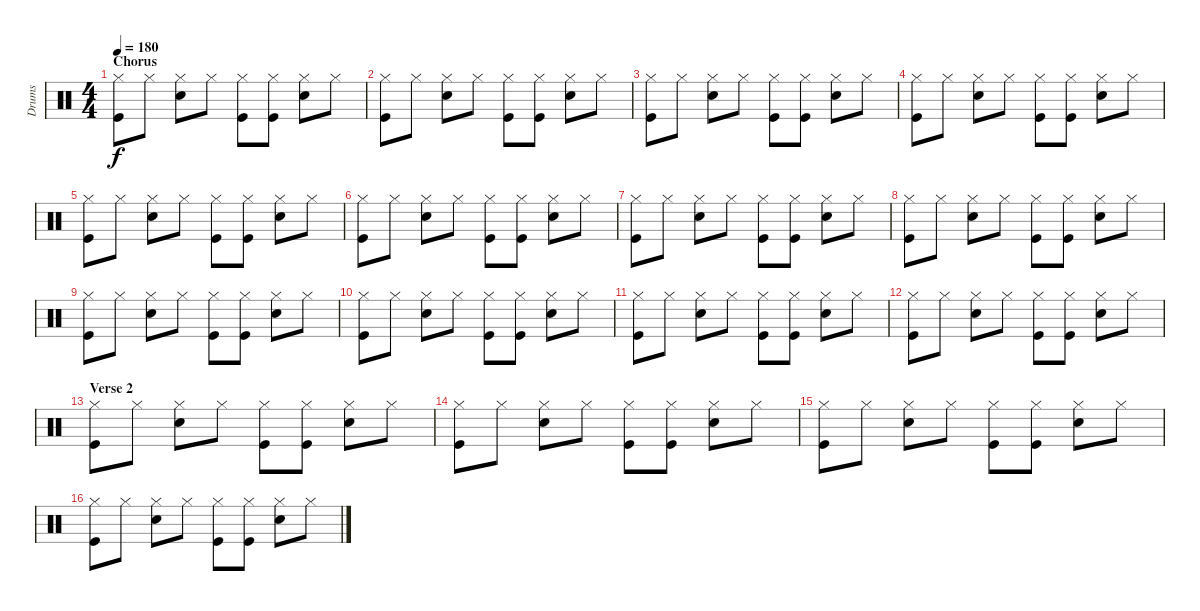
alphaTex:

\track ("Drums" "Drums") {instrument percussion}
\staff {score}
\articulation defaults
\ts (4 4)
\section ("" "Chorus")
\tempo 180
\clef neutral
\ks c
("Hi-Hat (closed)" "Kick (hit)").8{dy f} "Hi-Hat (closed)".8 ("Hi-Hat (closed)" "Electric Snare (hit)").8 "Hi-Hat (closed)".8 ("Kick (hit)" "Hi-Hat (closed)").8 ("Hi-Hat (closed)" "Kick (hit)").8 ("Hi-Hat (closed)" "Electric Snare (hit)").8 "Hi-Hat (closed)".8 |
("Hi-Hat (closed)" "Kick (hit)").8 "Hi-Hat (closed)".8 ("Hi-Hat (closed)" "Electric Snare (hit)").8 "Hi-Hat (closed)".8 ("Kick (hit)" "Hi-Hat (closed)").8 ("Hi-Hat (closed)" "Kick (hit)").8 ("Hi-Hat (closed)" "Electric Snare (hit)").8 "Hi-Hat (closed)".8 |
("Hi-Hat (closed)" "Kick (hit)").8 "Hi-Hat (closed)".8 ("Hi-Hat (closed)" "Electric Snare (hit)").8 "Hi-Hat (closed)".8 ("Kick (hit)" "Hi-Hat (closed)").8 ("Hi-Hat (closed)" "Kick (hit)").8 ("Hi-Hat (closed)" "Electric Snare (hit)").8 "Hi-Hat (closed)".8 |
("Hi-Hat (closed)" "Kick (hit)").8 "Hi-Hat (closed)".8 ("Hi-Hat (closed)" "Electric Snare (hit)").8 "Hi-Hat (closed)".8 ("Kick (hit)" "Hi-Hat (closed)").8 ("Hi-Hat (closed)" "Kick (hit)").8 ("Hi-Hat (closed)" "Electric Snare (hit)").8 "Hi-Hat (closed)".8 |
("Hi-Hat (closed)" "Kick (hit)").8 "Hi-Hat (closed)".8 ("Hi-Hat (closed)" "Electric Snare (hit)").8 "Hi-Hat (closed)".8 ("Kick (hit)" "Hi-Hat (closed)").8 ("Hi-Hat (closed)" "Kick (hit)").8 ("Hi-Hat (closed)" "Electric Snare (hit)").8 "Hi-Hat (closed)".8 |
("Hi-Hat (closed)" "Kick (hit)").8 "Hi-Hat (closed)".8 ("Hi-Hat (closed)" "Electric Snare (hit)").8 "Hi-Hat (closed)".8 ("Kick (hit)" "Hi-Hat (closed)").8 ("Hi-Hat (closed)" "Kick (hit)").8 ("Hi-Hat (closed)" "Electric Snare (hit)").8 "Hi-Hat (closed)".8 |
("Hi-Hat (closed)" "Kick (hit)").8 "Hi-Hat (closed)".8 ("Hi-Hat (closed)" "Electric Snare (hit)").8 "Hi-Hat (closed)".8 ("Kick (hit)" "Hi-Hat (closed)").8 ("Hi-Hat (closed)" "Kick (hit)").8 ("Hi-Hat (closed)" "Electric Snare (hit)").8 "Hi-Hat (closed)".8 |
("Hi-Hat (closed)" "Kick (hit)").8 "Hi-Hat (closed)".8 ("Hi-Hat (closed)" "Electric Snare (hit)").8 "Hi-Hat (closed)".8 ("Kick (hit)" "Hi-Hat (closed)").8 ("Hi-Hat (closed)" "Kick (hit)").8 ("Hi-Hat (closed)" "Electric Snare (hit)").8 "Hi-Hat (closed)".8 |
("Hi-Hat (closed)" "Kick (hit)").8 "Hi-Hat (closed)".8 ("Hi-Hat (closed)" "Electric Snare (hit)").8 "Hi-Hat (closed)".8 ("Kick (hit)" "Hi-Hat (closed)").8 ("Hi-Hat (closed)" "Kick (hit)").8 ("Hi-Hat (closed)" "Electric Snare (hit)").8 "Hi-Hat (closed)".8 |
("Hi-Hat (closed)" "Kick (hit)").8 "Hi-Hat (closed)".8 ("Hi-Hat (closed)" "Electric Snare (hit)").8 "Hi-Hat (closed)".8 ("Kick (hit)" "Hi-Hat (closed)").8 ("Hi-Hat (closed)" "Kick (hit)").8 ("Hi-Hat (closed)" "Electric Snare (hit)").8 "Hi-Hat (closed)".8 |
("Hi-Hat (closed)" "Kick (hit)").8 "Hi-Hat (closed)".8 ("Hi-Hat (closed)" "Electric Snare (hit)").8 "Hi-Hat (closed)".8 ("Kick (hit)" "Hi-Hat (closed)").8 ("Hi-Hat (closed)" "Kick (hit)").8 ("Hi-Hat (closed)" "Electric Snare (hit)").8 "Hi-Hat (closed)".8 |
("Hi-Hat (closed)" "Kick (hit)").8 "Hi-Hat (closed)".8 ("Hi-Hat (closed)" "Electric Snare (hit)").8 "Hi-Hat (closed)".8 ("Kick (hit)" "Hi-Hat (closed)").8 ("Hi-Hat (closed)" "Kick (hit)").8 ("Hi-Hat (closed)" "Electric Snare (hit)").8 "Hi-Hat (closed)".8 |
\section ("" "Verse 2")
("Hi-Hat (closed)" "Kick (hit)").8 "Hi-Hat (closed)".8 ("Hi-Hat (closed)" "Electric Snare (hit)").8 "Hi-Hat (closed)".8 ("Kick (hit)" "Hi-Hat (closed)").8 ("Hi-Hat (closed)" "Kick (hit)").8 ("Hi-Hat (closed)" "Electric Snare (hit)").8 "Hi-Hat (closed)".8 |
("Hi-Hat (closed)" "Kick (hit)").8 "Hi-Hat (closed)".8 ("Hi-Hat (closed)" "Electric Snare (hit)").8 "Hi-Hat (closed)".8 ("Kick (hit)" "Hi-Hat (closed)").8 ("Hi-Hat (closed)" "Kick (hit)").8 ("Hi-Hat (closed)" "Electric Snare (hit)").8 "Hi-Hat (closed)".8 |
("Hi-Hat (closed)" "Kick (hit)").8 "Hi-Hat (closed)".8 ("Hi-Hat (closed)" "Electric Snare (hit)").8 "Hi-Hat (closed)".8 ("Kick (hit)" "Hi-Hat (closed)").8 ("Hi-Hat (closed)" "Kick (hit)").8 ("Hi-Hat (closed)" "Electric Snare (hit)").8 "Hi-Hat (closed)".8 |
("Hi-Hat (closed)" "Kick (hit)").8 "Hi-Hat (closed)".8 ("Hi-Hat (closed)" "Electric Snare (hit)").8 "Hi-Hat (closed)".8 ("Kick (hit)" "Hi-Hat (closed)").8 ("Hi-Hat (closed)" "Kick (hit)").8 ("Hi-Hat (closed)" "Electric Snare (hit)").8 "Hi-Hat (closed)".8
